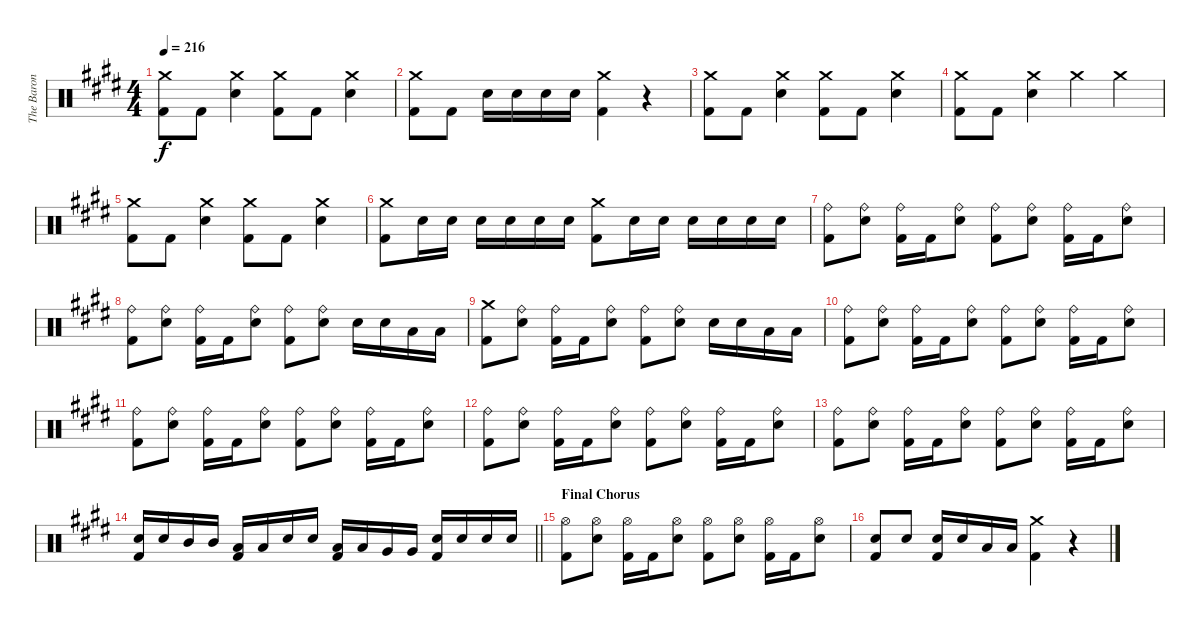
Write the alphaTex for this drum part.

\track ("The Baron Von Tito" "The Baron ") {instrument percussion}
\staff {score}
\articulation defaults
\ts (4 4)
\tempo 216
\clef neutral
\ks e
("Crash medium (hit)" "Kick (hit) 2").8{dy f} "Kick (hit) 2".8 ("Crash medium (hit)" "Electric Snare (hit)").4 ("Crash medium (hit)" "Kick (hit) 2").8 "Kick (hit) 2".8 ("Crash medium (hit)" "Electric Snare (hit)").4 |
("Crash medium (hit)" "Kick (hit) 2").8 "Kick (hit) 2".8 "Electric Snare (hit)".16 "Electric Snare (hit)".16 "Electric Snare (hit)".16 "Electric Snare (hit)".16 ("Crash medium (hit)" "Kick (hit) 2").4 r.4 |
("Crash medium (hit)" "Kick (hit) 2").8 "Kick (hit) 2".8 ("Crash medium (hit)" "Electric Snare (hit)").4 ("Crash medium (hit)" "Kick (hit) 2").8 "Kick (hit) 2".8 ("Crash medium (hit)" "Electric Snare (hit)").4 |
("Crash medium (hit)" "Kick (hit) 2").8 "Kick (hit) 2".8 ("Crash medium (hit)" "Electric Snare (hit)").4 "Crash medium (hit)".4 "Crash medium (hit)".4 |
("Crash medium (hit)" "Kick (hit) 2").8 "Kick (hit) 2".8 ("Crash medium (hit)" "Electric Snare (hit)").4 ("Crash medium (hit)" "Kick (hit) 2").8 "Kick (hit) 2".8 ("Crash medium (hit)" "Electric Snare (hit)").4 |
("Crash medium (hit)" "Kick (hit) 2").8 "Electric Snare (hit)".16 "Electric Snare (hit)".16 "Electric Snare (hit)".16 "Electric Snare (hit)".16 "Electric Snare (hit)".16 "Electric Snare (hit)".16 ("Crash medium (hit)" "Kick (hit) 2").8 "Electric Snare (hit)".16 "Electric Snare (hit)".16 "Electric Snare (hit)".16 "Electric Snare (hit)".16 "Electric Snare (hit)".16 "Electric Snare (hit)".16 |
("Ride (bell)" "Kick (hit) 2").8 ("Ride (bell)" "Electric Snare (hit)").8 ("Ride (bell)" "Kick (hit) 2").16 "Kick (hit) 2".16 ("Ride (bell)" "Electric Snare (hit)").8 ("Ride (bell)" "Kick (hit) 2").8 ("Ride (bell)" "Electric Snare (hit)").8 ("Ride (bell)" "Kick (hit) 2").16 "Kick (hit) 2".16 ("Ride (bell)" "Electric Snare (hit)").8 |
("Ride (bell)" "Kick (hit) 2").8 ("Ride (bell)" "Electric Snare (hit)").8 ("Ride (bell)" "Kick (hit) 2").16 "Kick (hit) 2".16 ("Ride (bell)" "Electric Snare (hit)").8 ("Ride (bell)" "Kick (hit) 2").8 ("Ride (bell)" "Electric Snare (hit)").8 "Electric Snare (hit)".16 "Electric Snare (hit)".16 "Low Tom (hit)".16 "Low Tom (hit)".16 |
("Crash medium (hit)" "Kick (hit) 2").8 ("Ride (bell)" "Electric Snare (hit)").8 ("Ride (bell)" "Kick (hit) 2").16 "Kick (hit) 2".16 ("Ride (bell)" "Electric Snare (hit)").8 ("Ride (bell)" "Kick (hit) 2").8 ("Ride (bell)" "Electric Snare (hit)").8 "Electric Snare (hit)".16 "Electric Snare (hit)".16 "Low Tom (hit)".16 "Low Tom (hit)".16 |
("Ride (bell)" "Kick (hit) 2").8 ("Ride (bell)" "Electric Snare (hit)").8 ("Ride (bell)" "Kick (hit) 2").16 "Kick (hit) 2".16 ("Ride (bell)" "Electric Snare (hit)").8 ("Ride (bell)" "Kick (hit) 2").8 ("Ride (bell)" "Electric Snare (hit)").8 ("Ride (bell)" "Kick (hit) 2").16 "Kick (hit) 2".16 ("Ride (bell)" "Electric Snare (hit)").8 |
("Ride (bell)" "Kick (hit) 2").8 ("Ride (bell)" "Electric Snare (hit)").8 ("Ride (bell)" "Kick (hit) 2").16 "Kick (hit) 2".16 ("Ride (bell)" "Electric Snare (hit)").8 ("Ride (bell)" "Kick (hit) 2").8 ("Ride (bell)" "Electric Snare (hit)").8 ("Ride (bell)" "Kick (hit) 2").16 "Kick (hit) 2".16 ("Ride (bell)" "Electric Snare (hit)").8 |
("Ride (bell)" "Kick (hit) 2").8 ("Ride (bell)" "Electric Snare (hit)").8 ("Ride (bell)" "Kick (hit) 2").16 "Kick (hit) 2".16 ("Ride (bell)" "Electric Snare (hit)").8 ("Ride (bell)" "Kick (hit) 2").8 ("Ride (bell)" "Electric Snare (hit)").8 ("Ride (bell)" "Kick (hit) 2").16 "Kick (hit) 2".16 ("Ride (bell)" "Electric Snare (hit)").8 |
("Ride (bell)" "Kick (hit) 2").8 ("Ride (bell)" "Electric Snare (hit)").8 ("Ride (bell)" "Kick (hit) 2").16 "Kick (hit) 2".16 ("Ride (bell)" "Electric Snare (hit)").8 ("Ride (bell)" "Kick (hit) 2").8 ("Ride (bell)" "Electric Snare (hit)").8 ("Ride (bell)" "Kick (hit) 2").16 "Kick (hit) 2".16 ("Ride (bell)" "Electric Snare (hit)").8 |
\barLineRight lightlight
("Electric Snare (hit)" "Kick (hit) 2").16 "Electric Snare (hit)".16 "Mid Tom (hit)".16 "Mid Tom (hit)".16 ("Low Tom (hit)" "Kick (hit) 2").16 "Low Tom (hit)".16 "Electric Snare (hit)".16 "Electric Snare (hit)".16 ("Low Tom (hit)" "Kick (hit) 2").16 "Low Tom (hit)".16 "Very Low Tom (hit)".16 "Very Low Tom (hit)".16 ("Electric Snare (hit)" "Kick (hit) 2").16 "Electric Snare (hit)".16 "Electric Snare (hit)".16 "Electric Snare (hit)".16 |
\section ("" "Final Chorus")
("Hi-Hat (open)" "Kick (hit) 2").8 ("Hi-Hat (open)" "Electric Snare (hit)").8 ("Hi-Hat (open)" "Kick (hit) 2").16 "Kick (hit) 2".16 ("Hi-Hat (open)" "Electric Snare (hit)").8 ("Hi-Hat (open)" "Kick (hit) 2").8 ("Hi-Hat (open)" "Electric Snare (hit)").8 ("Hi-Hat (open)" "Kick (hit) 2").16 "Kick (hit) 2".16 ("Hi-Hat (open)" "Electric Snare (hit)").8 |
("Electric Snare (hit)" "Kick (hit) 2").8 "Electric Snare (hit)".8 ("Electric Snare (hit)" "Kick (hit) 2").16 "Electric Snare (hit)".16 "Low Tom (hit)".16 "Low Tom (hit)".16 ("Crash medium (hit)" "Kick (hit) 2").4 r.4
